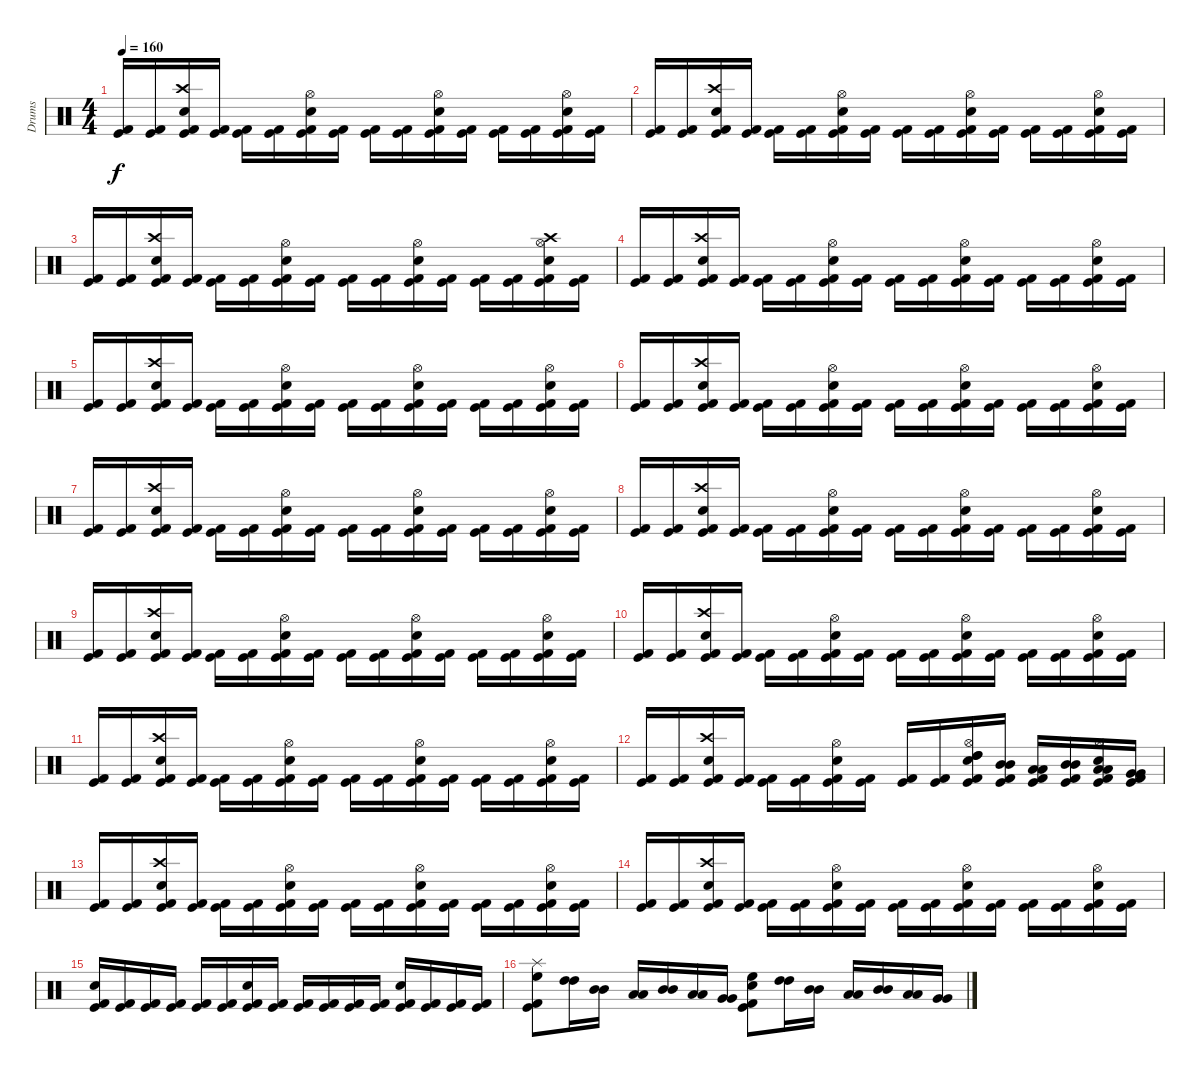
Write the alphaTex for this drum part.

\track ("Drums" "Drums") {instrument percussion}
\staff {score}
\articulation defaults
\ts (4 4)
\tempo 160
\clef neutral
\ks c
("Kick (hit) 2" "Kick (hit)").16{dy f} ("Kick (hit) 2" "Kick (hit)").16 ("Kick (hit) 2" "Kick (hit)" "Crash high (hit)" "Snare (hit) 2").16 ("Kick (hit) 2" "Kick (hit)").16 ("Kick (hit) 2" "Kick (hit)").16 ("Kick (hit) 2" "Kick (hit)").16 ("Kick (hit) 2" "Kick (hit)" "Hi-Hat (open)" "Snare (hit) 2").16 ("Kick (hit) 2" "Kick (hit)").16 ("Kick (hit) 2" "Kick (hit)").16 ("Kick (hit) 2" "Kick (hit)").16 ("Kick (hit) 2" "Kick (hit)" "Hi-Hat (open)" "Snare (hit) 2").16 ("Kick (hit) 2" "Kick (hit)").16 ("Kick (hit) 2" "Kick (hit)").16 ("Kick (hit) 2" "Kick (hit)").16 ("Kick (hit) 2" "Kick (hit)" "Hi-Hat (open)" "Snare (hit) 2").16 ("Kick (hit) 2" "Kick (hit)").16 |
("Kick (hit) 2" "Kick (hit)").16 ("Kick (hit) 2" "Kick (hit)").16 ("Kick (hit) 2" "Kick (hit)" "Crash high (hit)" "Snare (hit) 2").16 ("Kick (hit) 2" "Kick (hit)").16 ("Kick (hit) 2" "Kick (hit)").16 ("Kick (hit) 2" "Kick (hit)").16 ("Kick (hit) 2" "Kick (hit)" "Hi-Hat (open)" "Snare (hit) 2").16 ("Kick (hit) 2" "Kick (hit)").16 ("Kick (hit) 2" "Kick (hit)").16 ("Kick (hit) 2" "Kick (hit)").16 ("Kick (hit) 2" "Kick (hit)" "Hi-Hat (open)" "Snare (hit) 2").16 ("Kick (hit) 2" "Kick (hit)").16 ("Kick (hit) 2" "Kick (hit)").16 ("Kick (hit) 2" "Kick (hit)").16 ("Kick (hit) 2" "Kick (hit)" "Hi-Hat (open)" "Snare (hit) 2").16 ("Kick (hit) 2" "Kick (hit)").16 |
("Kick (hit) 2" "Kick (hit)").16 ("Kick (hit) 2" "Kick (hit)").16 ("Kick (hit) 2" "Kick (hit)" "Crash high (hit)" "Snare (hit) 2").16 ("Kick (hit) 2" "Kick (hit)").16 ("Kick (hit) 2" "Kick (hit)").16 ("Kick (hit) 2" "Kick (hit)").16 ("Kick (hit) 2" "Kick (hit)" "Hi-Hat (open)" "Snare (hit) 2").16 ("Kick (hit) 2" "Kick (hit)").16 ("Kick (hit) 2" "Kick (hit)").16 ("Kick (hit) 2" "Kick (hit)").16 ("Kick (hit) 2" "Kick (hit)" "Hi-Hat (open)" "Snare (hit) 2").16 ("Kick (hit) 2" "Kick (hit)").16 ("Kick (hit) 2" "Kick (hit)").16 ("Kick (hit) 2" "Kick (hit)").16 ("Kick (hit) 2" "Kick (hit)" "Hi-Hat (open)" "Snare (hit) 2" "Crash high (hit)").16 ("Kick (hit) 2" "Kick (hit)").16 |
("Kick (hit) 2" "Kick (hit)").16 ("Kick (hit) 2" "Kick (hit)").16 ("Kick (hit) 2" "Kick (hit)" "Crash high (hit)" "Snare (hit) 2").16 ("Kick (hit) 2" "Kick (hit)").16 ("Kick (hit) 2" "Kick (hit)").16 ("Kick (hit) 2" "Kick (hit)").16 ("Kick (hit) 2" "Kick (hit)" "Hi-Hat (open)" "Snare (hit) 2").16 ("Kick (hit) 2" "Kick (hit)").16 ("Kick (hit) 2" "Kick (hit)").16 ("Kick (hit) 2" "Kick (hit)").16 ("Kick (hit) 2" "Kick (hit)" "Hi-Hat (open)" "Snare (hit) 2").16 ("Kick (hit) 2" "Kick (hit)").16 ("Kick (hit) 2" "Kick (hit)").16 ("Kick (hit) 2" "Kick (hit)").16 ("Kick (hit) 2" "Kick (hit)" "Hi-Hat (open)" "Snare (hit) 2").16 ("Kick (hit) 2" "Kick (hit)").16 |
("Kick (hit) 2" "Kick (hit)").16 ("Kick (hit) 2" "Kick (hit)").16 ("Kick (hit) 2" "Kick (hit)" "Crash high (hit)" "Snare (hit) 2").16 ("Kick (hit) 2" "Kick (hit)").16 ("Kick (hit) 2" "Kick (hit)").16 ("Kick (hit) 2" "Kick (hit)").16 ("Kick (hit) 2" "Kick (hit)" "Hi-Hat (open)" "Snare (hit) 2").16 ("Kick (hit) 2" "Kick (hit)").16 ("Kick (hit) 2" "Kick (hit)").16 ("Kick (hit) 2" "Kick (hit)").16 ("Kick (hit) 2" "Kick (hit)" "Hi-Hat (open)" "Snare (hit) 2").16 ("Kick (hit) 2" "Kick (hit)").16 ("Kick (hit) 2" "Kick (hit)").16 ("Kick (hit) 2" "Kick (hit)").16 ("Kick (hit) 2" "Kick (hit)" "Hi-Hat (open)" "Snare (hit) 2").16 ("Kick (hit) 2" "Kick (hit)").16 |
("Kick (hit) 2" "Kick (hit)").16 ("Kick (hit) 2" "Kick (hit)").16 ("Kick (hit) 2" "Kick (hit)" "Crash high (hit)" "Snare (hit) 2").16 ("Kick (hit) 2" "Kick (hit)").16 ("Kick (hit) 2" "Kick (hit)").16 ("Kick (hit) 2" "Kick (hit)").16 ("Kick (hit) 2" "Kick (hit)" "Hi-Hat (open)" "Snare (hit) 2").16 ("Kick (hit) 2" "Kick (hit)").16 ("Kick (hit) 2" "Kick (hit)").16 ("Kick (hit) 2" "Kick (hit)").16 ("Kick (hit) 2" "Kick (hit)" "Hi-Hat (open)" "Snare (hit) 2").16 ("Kick (hit) 2" "Kick (hit)").16 ("Kick (hit) 2" "Kick (hit)").16 ("Kick (hit) 2" "Kick (hit)").16 ("Kick (hit) 2" "Kick (hit)" "Hi-Hat (open)" "Snare (hit) 2").16 ("Kick (hit) 2" "Kick (hit)").16 |
("Kick (hit) 2" "Kick (hit)").16 ("Kick (hit) 2" "Kick (hit)").16 ("Kick (hit) 2" "Kick (hit)" "Crash high (hit)" "Snare (hit) 2").16 ("Kick (hit) 2" "Kick (hit)").16 ("Kick (hit) 2" "Kick (hit)").16 ("Kick (hit) 2" "Kick (hit)").16 ("Kick (hit) 2" "Kick (hit)" "Hi-Hat (open)" "Snare (hit) 2").16 ("Kick (hit) 2" "Kick (hit)").16 ("Kick (hit) 2" "Kick (hit)").16 ("Kick (hit) 2" "Kick (hit)").16 ("Kick (hit) 2" "Kick (hit)" "Hi-Hat (open)" "Snare (hit) 2").16 ("Kick (hit) 2" "Kick (hit)").16 ("Kick (hit) 2" "Kick (hit)").16 ("Kick (hit) 2" "Kick (hit)").16 ("Kick (hit) 2" "Kick (hit)" "Hi-Hat (open)" "Snare (hit) 2").16 ("Kick (hit) 2" "Kick (hit)").16 |
("Kick (hit) 2" "Kick (hit)").16 ("Kick (hit) 2" "Kick (hit)").16 ("Kick (hit) 2" "Kick (hit)" "Crash high (hit)" "Snare (hit) 2").16 ("Kick (hit) 2" "Kick (hit)").16 ("Kick (hit) 2" "Kick (hit)").16 ("Kick (hit) 2" "Kick (hit)").16 ("Kick (hit) 2" "Kick (hit)" "Hi-Hat (open)" "Snare (hit) 2").16 ("Kick (hit) 2" "Kick (hit)").16 ("Kick (hit) 2" "Kick (hit)").16 ("Kick (hit) 2" "Kick (hit)").16 ("Kick (hit) 2" "Kick (hit)" "Hi-Hat (open)" "Snare (hit) 2").16 ("Kick (hit) 2" "Kick (hit)").16 ("Kick (hit) 2" "Kick (hit)").16 ("Kick (hit) 2" "Kick (hit)").16 ("Kick (hit) 2" "Kick (hit)" "Hi-Hat (open)" "Snare (hit) 2").16 ("Kick (hit) 2" "Kick (hit)").16 |
("Kick (hit) 2" "Kick (hit)").16 ("Kick (hit) 2" "Kick (hit)").16 ("Kick (hit) 2" "Kick (hit)" "Crash high (hit)" "Snare (hit) 2").16 ("Kick (hit) 2" "Kick (hit)").16 ("Kick (hit) 2" "Kick (hit)").16 ("Kick (hit) 2" "Kick (hit)").16 ("Kick (hit) 2" "Kick (hit)" "Hi-Hat (open)" "Snare (hit) 2").16 ("Kick (hit) 2" "Kick (hit)").16 ("Kick (hit) 2" "Kick (hit)").16 ("Kick (hit) 2" "Kick (hit)").16 ("Kick (hit) 2" "Kick (hit)" "Hi-Hat (open)" "Snare (hit) 2").16 ("Kick (hit) 2" "Kick (hit)").16 ("Kick (hit) 2" "Kick (hit)").16 ("Kick (hit) 2" "Kick (hit)").16 ("Kick (hit) 2" "Kick (hit)" "Hi-Hat (open)" "Snare (hit) 2").16 ("Kick (hit) 2" "Kick (hit)").16 |
("Kick (hit) 2" "Kick (hit)").16 ("Kick (hit) 2" "Kick (hit)").16 ("Kick (hit) 2" "Kick (hit)" "Crash high (hit)" "Snare (hit) 2").16 ("Kick (hit) 2" "Kick (hit)").16 ("Kick (hit) 2" "Kick (hit)").16 ("Kick (hit) 2" "Kick (hit)").16 ("Kick (hit) 2" "Kick (hit)" "Hi-Hat (open)" "Snare (hit) 2").16 ("Kick (hit) 2" "Kick (hit)").16 ("Kick (hit) 2" "Kick (hit)").16 ("Kick (hit) 2" "Kick (hit)").16 ("Kick (hit) 2" "Kick (hit)" "Hi-Hat (open)" "Snare (hit) 2").16 ("Kick (hit) 2" "Kick (hit)").16 ("Kick (hit) 2" "Kick (hit)").16 ("Kick (hit) 2" "Kick (hit)").16 ("Kick (hit) 2" "Kick (hit)" "Hi-Hat (open)" "Snare (hit) 2").16 ("Kick (hit) 2" "Kick (hit)").16 |
("Kick (hit) 2" "Kick (hit)").16 ("Kick (hit) 2" "Kick (hit)").16 ("Kick (hit) 2" "Kick (hit)" "Crash high (hit)" "Snare (hit) 2").16 ("Kick (hit) 2" "Kick (hit)").16 ("Kick (hit) 2" "Kick (hit)").16 ("Kick (hit) 2" "Kick (hit)").16 ("Kick (hit) 2" "Kick (hit)" "Hi-Hat (open)" "Snare (hit) 2").16 ("Kick (hit) 2" "Kick (hit)").16 ("Kick (hit) 2" "Kick (hit)").16 ("Kick (hit) 2" "Kick (hit)").16 ("Kick (hit) 2" "Kick (hit)" "Hi-Hat (open)" "Snare (hit) 2").16 ("Kick (hit) 2" "Kick (hit)").16 ("Kick (hit) 2" "Kick (hit)").16 ("Kick (hit) 2" "Kick (hit)").16 ("Kick (hit) 2" "Kick (hit)" "Hi-Hat (open)" "Snare (hit) 2").16 ("Kick (hit) 2" "Kick (hit)").16 |
("Kick (hit) 2" "Kick (hit)").16 ("Kick (hit) 2" "Kick (hit)").16 ("Kick (hit) 2" "Kick (hit)" "Crash high (hit)" "Snare (hit) 2").16 ("Kick (hit) 2" "Kick (hit)").16 ("Kick (hit) 2" "Kick (hit)").16 ("Kick (hit) 2" "Kick (hit)").16 ("Kick (hit) 2" "Kick (hit)" "Hi-Hat (open)" "Snare (hit) 2").16 ("Kick (hit) 2" "Kick (hit)").16 ("Kick (hit) 2" "Kick (hit)").16 ("Kick (hit) 2" "Kick (hit)").16 ("Kick (hit) 2" "Kick (hit)" "Hi-Hat (open)" "Snare (hit) 2" "High Tom (hit)" "High Tom (hit)").16 ("Mid Tom (hit)" "Mid Tom (hit)" "Kick (hit) 2" "Kick (hit)").16 ("Low Tom (hit)" "Low Tom (hit)" "Kick (hit) 2" "Kick (hit)").16 ("Mid Tom (hit)" "Mid Tom (hit)" "Kick (hit) 2" "Kick (hit)").16 ("Low Tom (hit)" "Low Tom (hit)" "Hi-Hat (open)" "Snare (hit) 2" "Kick (hit) 2" "Kick (hit)").16 ("Very Low Tom (hit)" "Very Low Tom (hit)" "Kick (hit) 2" "Kick (hit)").16 |
("Kick (hit) 2" "Kick (hit)").16 ("Kick (hit) 2" "Kick (hit)").16 ("Kick (hit) 2" "Kick (hit)" "Crash high (hit)" "Snare (hit) 2").16 ("Kick (hit) 2" "Kick (hit)").16 ("Kick (hit) 2" "Kick (hit)").16 ("Kick (hit) 2" "Kick (hit)").16 ("Kick (hit) 2" "Kick (hit)" "Hi-Hat (open)" "Snare (hit) 2").16 ("Kick (hit) 2" "Kick (hit)").16 ("Kick (hit) 2" "Kick (hit)").16 ("Kick (hit) 2" "Kick (hit)").16 ("Kick (hit) 2" "Kick (hit)" "Hi-Hat (open)" "Snare (hit) 2").16 ("Kick (hit) 2" "Kick (hit)").16 ("Kick (hit) 2" "Kick (hit)").16 ("Kick (hit) 2" "Kick (hit)").16 ("Kick (hit) 2" "Kick (hit)" "Hi-Hat (open)" "Snare (hit) 2").16 ("Kick (hit) 2" "Kick (hit)").16 |
("Kick (hit) 2" "Kick (hit)").16 ("Kick (hit) 2" "Kick (hit)").16 ("Kick (hit) 2" "Kick (hit)" "Crash high (hit)" "Snare (hit) 2").16 ("Kick (hit) 2" "Kick (hit)").16 ("Kick (hit) 2" "Kick (hit)").16 ("Kick (hit) 2" "Kick (hit)").16 ("Kick (hit) 2" "Kick (hit)" "Hi-Hat (open)" "Snare (hit) 2").16 ("Kick (hit) 2" "Kick (hit)").16 ("Kick (hit) 2" "Kick (hit)").16 ("Kick (hit) 2" "Kick (hit)").16 ("Kick (hit) 2" "Kick (hit)" "Hi-Hat (open)" "Snare (hit) 2").16 ("Kick (hit) 2" "Kick (hit)").16 ("Kick (hit) 2" "Kick (hit)").16 ("Kick (hit) 2" "Kick (hit)").16 ("Kick (hit) 2" "Kick (hit)" "Hi-Hat (open)" "Snare (hit) 2").16 ("Kick (hit) 2" "Kick (hit)").16 |
("Kick (hit) 2" "Kick (hit)" "Snare (hit) 2").16 ("Kick (hit) 2" "Kick (hit)").16 ("Kick (hit) 2" "Kick (hit)").16 ("Kick (hit) 2" "Kick (hit)").16 ("Kick (hit) 2" "Kick (hit)").16 ("Kick (hit) 2" "Kick (hit)").16 ("Kick (hit) 2" "Kick (hit)" "Snare (hit) 2").16 ("Kick (hit) 2" "Kick (hit)").16 ("Kick (hit) 2" "Kick (hit)").16 ("Kick (hit) 2" "Kick (hit)").16 ("Kick (hit) 2" "Kick (hit)").16 ("Kick (hit) 2" "Kick (hit)").16 ("Kick (hit) 2" "Kick (hit)" "Snare (hit) 2").16 ("Kick (hit) 2" "Kick (hit)").16 ("Kick (hit) 2" "Kick (hit)").16 ("Kick (hit) 2" "Kick (hit)").16 |
("Kick (hit) 2" "Kick (hit)" "High Floor Tom (hit)" "Splash (hit)").8 ("High Tom (hit)" "High Tom (hit)").16 ("Mid Tom (hit)" "Mid Tom (hit)").16 ("Low Tom (hit)" "Low Tom (hit)").16 ("Mid Tom (hit)" "Mid Tom (hit)").16 ("Low Tom (hit)" "Low Tom (hit)").16 ("Very Low Tom (hit)" "Very Low Tom (hit)").16 ("Kick (hit) 2" "Kick (hit)" "Snare (hit) 2" "High Floor Tom (hit)").8 ("High Tom (hit)" "High Tom (hit)").16 ("Mid Tom (hit)" "Mid Tom (hit)").16 ("Low Tom (hit)" "Low Tom (hit)").16 ("Mid Tom (hit)" "Mid Tom (hit)").16 ("Low Tom (hit)" "Low Tom (hit)").16 ("Very Low Tom (hit)" "Very Low Tom (hit)").16
